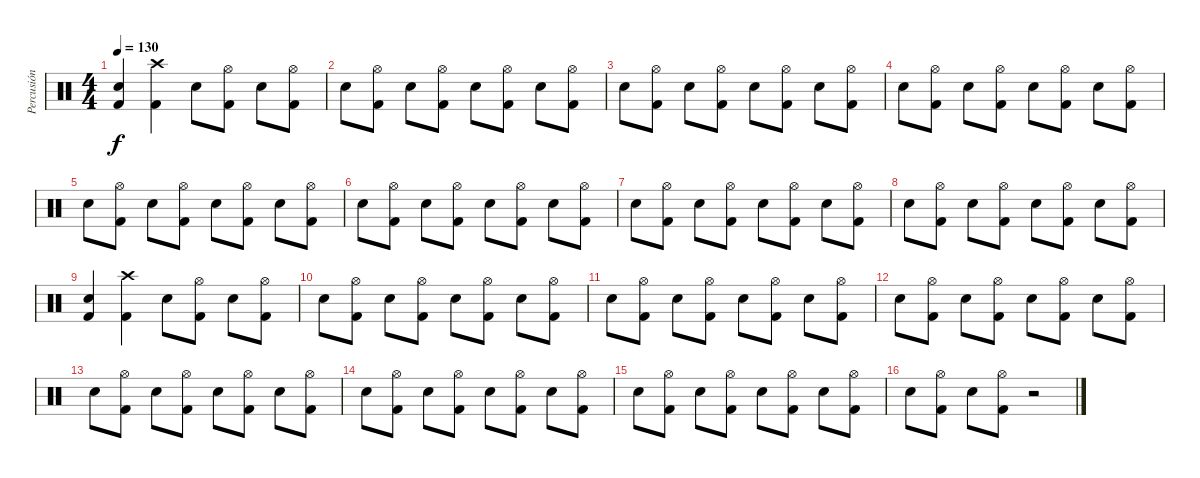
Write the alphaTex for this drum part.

\track ("Percusión" "Percusión") {instrument percussion}
\staff {score}
\articulation defaults
\ts (4 4)
\tempo 130
\clef neutral
\ks c
("Snare (hit) 2" "Kick (hit) 2").4{dy f} ("Crash high (hit)" "Kick (hit) 2").4 "Snare (hit) 2".8 ("Hi-Hat (open)" "Kick (hit) 2").8 "Snare (hit) 2".8 ("Hi-Hat (open)" "Kick (hit) 2").8 |
"Snare (hit) 2".8 ("Hi-Hat (open)" "Kick (hit) 2").8 "Snare (hit) 2".8 ("Hi-Hat (open)" "Kick (hit) 2").8 "Snare (hit) 2".8 ("Hi-Hat (open)" "Kick (hit) 2").8 "Snare (hit) 2".8 ("Hi-Hat (open)" "Kick (hit) 2").8 |
"Snare (hit) 2".8 ("Hi-Hat (open)" "Kick (hit) 2").8 "Snare (hit) 2".8 ("Hi-Hat (open)" "Kick (hit) 2").8 "Snare (hit) 2".8 ("Hi-Hat (open)" "Kick (hit) 2").8 "Snare (hit) 2".8 ("Hi-Hat (open)" "Kick (hit) 2").8 |
"Snare (hit) 2".8 ("Hi-Hat (open)" "Kick (hit) 2").8 "Snare (hit) 2".8 ("Hi-Hat (open)" "Kick (hit) 2").8 "Snare (hit) 2".8 ("Hi-Hat (open)" "Kick (hit) 2").8 "Snare (hit) 2".8 ("Hi-Hat (open)" "Kick (hit) 2").8 |
"Snare (hit) 2".8 ("Hi-Hat (open)" "Kick (hit) 2").8 "Snare (hit) 2".8 ("Hi-Hat (open)" "Kick (hit) 2").8 "Snare (hit) 2".8 ("Hi-Hat (open)" "Kick (hit) 2").8 "Snare (hit) 2".8 ("Hi-Hat (open)" "Kick (hit) 2").8 |
"Snare (hit) 2".8 ("Hi-Hat (open)" "Kick (hit) 2").8 "Snare (hit) 2".8 ("Hi-Hat (open)" "Kick (hit) 2").8 "Snare (hit) 2".8 ("Hi-Hat (open)" "Kick (hit) 2").8 "Snare (hit) 2".8 ("Hi-Hat (open)" "Kick (hit) 2").8 |
"Snare (hit) 2".8 ("Hi-Hat (open)" "Kick (hit) 2").8 "Snare (hit) 2".8 ("Hi-Hat (open)" "Kick (hit) 2").8 "Snare (hit) 2".8 ("Hi-Hat (open)" "Kick (hit) 2").8 "Snare (hit) 2".8 ("Hi-Hat (open)" "Kick (hit) 2").8 |
"Snare (hit) 2".8 ("Hi-Hat (open)" "Kick (hit) 2").8 "Snare (hit) 2".8 ("Hi-Hat (open)" "Kick (hit) 2").8 "Snare (hit) 2".8 ("Hi-Hat (open)" "Kick (hit) 2").8 "Snare (hit) 2".8 ("Hi-Hat (open)" "Kick (hit) 2").8 |
("Snare (hit) 2" "Kick (hit) 2").4 ("Crash high (hit)" "Kick (hit) 2").4 "Snare (hit) 2".8 ("Hi-Hat (open)" "Kick (hit) 2").8 "Snare (hit) 2".8 ("Hi-Hat (open)" "Kick (hit) 2").8 |
"Snare (hit) 2".8 ("Hi-Hat (open)" "Kick (hit) 2").8 "Snare (hit) 2".8 ("Hi-Hat (open)" "Kick (hit) 2").8 "Snare (hit) 2".8 ("Hi-Hat (open)" "Kick (hit) 2").8 "Snare (hit) 2".8 ("Hi-Hat (open)" "Kick (hit) 2").8 |
"Snare (hit) 2".8 ("Hi-Hat (open)" "Kick (hit) 2").8 "Snare (hit) 2".8 ("Hi-Hat (open)" "Kick (hit) 2").8 "Snare (hit) 2".8 ("Hi-Hat (open)" "Kick (hit) 2").8 "Snare (hit) 2".8 ("Hi-Hat (open)" "Kick (hit) 2").8 |
"Snare (hit) 2".8 ("Hi-Hat (open)" "Kick (hit) 2").8 "Snare (hit) 2".8 ("Hi-Hat (open)" "Kick (hit) 2").8 "Snare (hit) 2".8 ("Hi-Hat (open)" "Kick (hit) 2").8 "Snare (hit) 2".8 ("Hi-Hat (open)" "Kick (hit) 2").8 |
"Snare (hit) 2".8 ("Hi-Hat (open)" "Kick (hit) 2").8 "Snare (hit) 2".8 ("Hi-Hat (open)" "Kick (hit) 2").8 "Snare (hit) 2".8 ("Hi-Hat (open)" "Kick (hit) 2").8 "Snare (hit) 2".8 ("Hi-Hat (open)" "Kick (hit) 2").8 |
"Snare (hit) 2".8 ("Hi-Hat (open)" "Kick (hit) 2").8 "Snare (hit) 2".8 ("Hi-Hat (open)" "Kick (hit) 2").8 "Snare (hit) 2".8 ("Hi-Hat (open)" "Kick (hit) 2").8 "Snare (hit) 2".8 ("Hi-Hat (open)" "Kick (hit) 2").8 |
"Snare (hit) 2".8 ("Hi-Hat (open)" "Kick (hit) 2").8 "Snare (hit) 2".8 ("Hi-Hat (open)" "Kick (hit) 2").8 "Snare (hit) 2".8 ("Hi-Hat (open)" "Kick (hit) 2").8 "Snare (hit) 2".8 ("Hi-Hat (open)" "Kick (hit) 2").8 |
"Snare (hit) 2".8 ("Hi-Hat (open)" "Kick (hit) 2").8 "Snare (hit) 2".8 ("Hi-Hat (open)" "Kick (hit) 2").8 r.2
